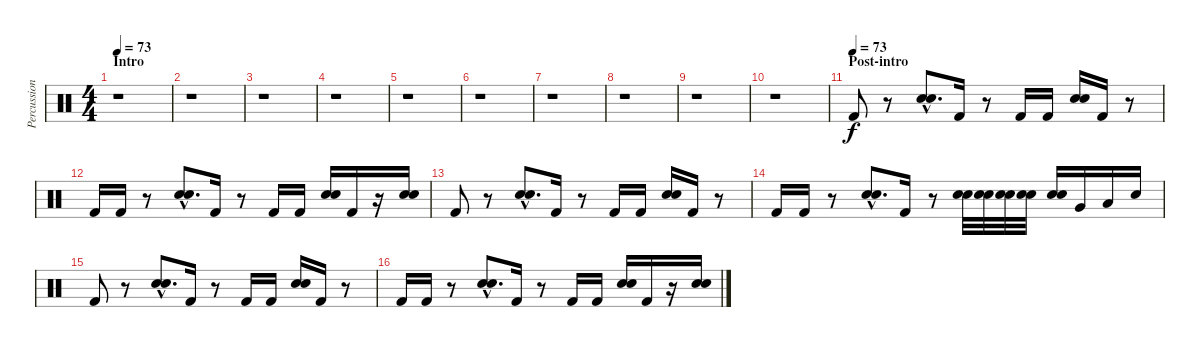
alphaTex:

\track ("Percussions" "Percussion") {instrument percussion}
\staff {score}
\articulation defaults
\ts (4 4)
\section ("" "Intro")
\tempo 73
\tempo 68
\tempo 73
\clef neutral
\ks c
r.1{dy f} |
r.1 |
r.1 |
r.1 |
r.1 |
r.1 |
r.1 |
r.1 |
r.1 |
r.1 |
\section ("" "Post-intro")
\tempo (73)
"Kick (hit) 2".8 r.8 ("Electric Snare (hit)"{hac} "Snare (hit) 2"{hac}).8{d} "Kick (hit) 2".16 r.8 "Kick (hit) 2".16 "Kick (hit) 2".16 ("Electric Snare (hit)" "Snare (hit) 2").16 "Kick (hit) 2".16 r.8 |
"Kick (hit) 2".16 "Kick (hit) 2".16 r.8 ("Electric Snare (hit)"{hac} "Snare (hit) 2"{hac}).8{d} "Kick (hit) 2".16 r.8 "Kick (hit) 2".16 "Kick (hit) 2".16 ("Electric Snare (hit)" "Snare (hit) 2").16 "Kick (hit) 2".16 r.16 ("Electric Snare (hit)" "Snare (hit) 2").16 |
"Kick (hit) 2".8 r.8 ("Electric Snare (hit)"{hac} "Snare (hit) 2"{hac}).8{d} "Kick (hit) 2".16 r.8 "Kick (hit) 2".16 "Kick (hit) 2".16 ("Electric Snare (hit)" "Snare (hit) 2").16 "Kick (hit) 2".16 r.8 |
"Kick (hit) 2".16 "Kick (hit) 2".16 r.8 ("Electric Snare (hit)"{hac} "Snare (hit) 2"{hac}).8{d} "Kick (hit) 2".16 r.8 ("Electric Snare (hit)" "Snare (hit) 2").32 ("Electric Snare (hit)" "Snare (hit) 2").32 ("Electric Snare (hit)" "Snare (hit) 2").32 ("Electric Snare (hit)" "Snare (hit) 2").32 ("Electric Snare (hit)" "Snare (hit) 2").16 "Very Low Tom (hit)".16 "Low Floor Tom (hit)".16 "Snare (hit) 2".16 |
"Kick (hit) 2".8 r.8 ("Electric Snare (hit)"{hac} "Snare (hit) 2"{hac}).8{d} "Kick (hit) 2".16 r.8 "Kick (hit) 2".16 "Kick (hit) 2".16 ("Electric Snare (hit)" "Snare (hit) 2").16 "Kick (hit) 2".16 r.8 |
"Kick (hit) 2".16 "Kick (hit) 2".16 r.8 ("Electric Snare (hit)"{hac} "Snare (hit) 2"{hac}).8{d} "Kick (hit) 2".16 r.8 "Kick (hit) 2".16 "Kick (hit) 2".16 ("Electric Snare (hit)" "Snare (hit) 2").16 "Kick (hit) 2".16 r.16 ("Electric Snare (hit)" "Snare (hit) 2").16
